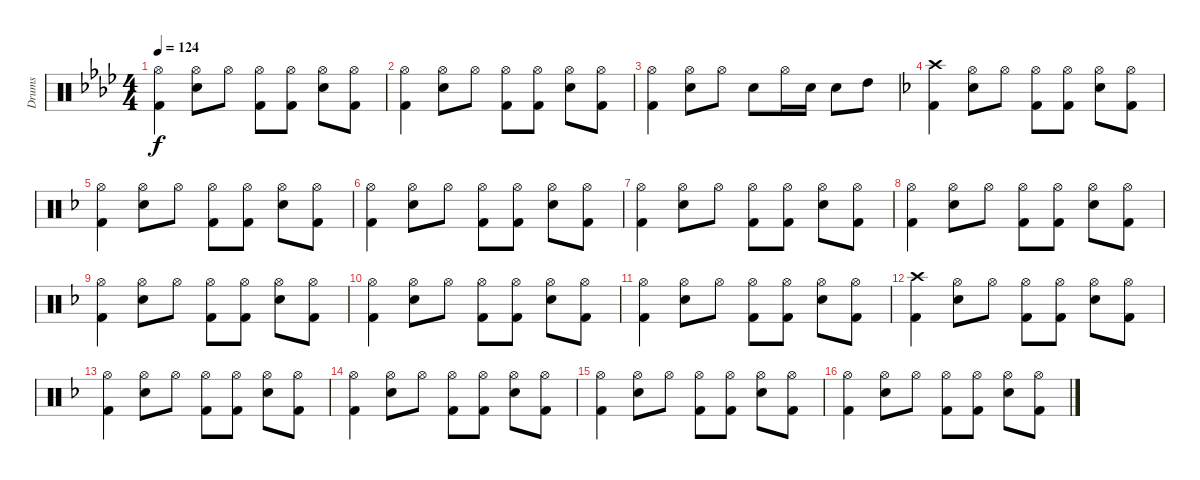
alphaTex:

\track ("Drums" "Drums") {instrument percussion}
\staff {score}
\articulation defaults
\ts (4 4)
\tempo 124
\clef neutral
\ks fminor
("Kick (hit) 2" "Hi-Hat (open)").4{dy f} ("Snare (hit) 2" "Hi-Hat (open)").8 "Hi-Hat (open)".8 ("Kick (hit) 2" "Hi-Hat (open)").8 ("Kick (hit) 2" "Hi-Hat (open)").8 ("Snare (hit) 2" "Hi-Hat (open)").8 ("Kick (hit) 2" "Hi-Hat (open)").8 |
("Kick (hit) 2" "Hi-Hat (open)").4 ("Snare (hit) 2" "Hi-Hat (open)").8 "Hi-Hat (open)".8 ("Kick (hit) 2" "Hi-Hat (open)").8 ("Kick (hit) 2" "Hi-Hat (open)").8 ("Snare (hit) 2" "Hi-Hat (open)").8 ("Kick (hit) 2" "Hi-Hat (open)").8 |
("Kick (hit) 2" "Hi-Hat (open)").4 ("Snare (hit) 2" "Hi-Hat (open)").8 "Hi-Hat (open)".8 "Snare (hit) 2".8 "Hi-Hat (open)".16 "Snare (hit) 2".16 "Snare (hit) 2".8 "High Tom (hit)".8 |
\ks dminor
("Kick (hit) 2" "Crash high (hit)").4 ("Snare (hit) 2" "Hi-Hat (open)").8 "Hi-Hat (open)".8 ("Kick (hit) 2" "Hi-Hat (open)").8 ("Kick (hit) 2" "Hi-Hat (open)").8 ("Snare (hit) 2" "Hi-Hat (open)").8 ("Kick (hit) 2" "Hi-Hat (open)").8 |
("Kick (hit) 2" "Hi-Hat (open)").4 ("Snare (hit) 2" "Hi-Hat (open)").8 "Hi-Hat (open)".8 ("Kick (hit) 2" "Hi-Hat (open)").8 ("Kick (hit) 2" "Hi-Hat (open)").8 ("Snare (hit) 2" "Hi-Hat (open)").8 ("Kick (hit) 2" "Hi-Hat (open)").8 |
("Kick (hit) 2" "Hi-Hat (open)").4 ("Snare (hit) 2" "Hi-Hat (open)").8 "Hi-Hat (open)".8 ("Kick (hit) 2" "Hi-Hat (open)").8 ("Kick (hit) 2" "Hi-Hat (open)").8 ("Snare (hit) 2" "Hi-Hat (open)").8 ("Kick (hit) 2" "Hi-Hat (open)").8 |
("Kick (hit) 2" "Hi-Hat (open)").4 ("Snare (hit) 2" "Hi-Hat (open)").8 "Hi-Hat (open)".8 ("Kick (hit) 2" "Hi-Hat (open)").8 ("Kick (hit) 2" "Hi-Hat (open)").8 ("Snare (hit) 2" "Hi-Hat (open)").8 ("Kick (hit) 2" "Hi-Hat (open)").8 |
("Kick (hit) 2" "Hi-Hat (open)").4 ("Snare (hit) 2" "Hi-Hat (open)").8 "Hi-Hat (open)".8 ("Kick (hit) 2" "Hi-Hat (open)").8 ("Kick (hit) 2" "Hi-Hat (open)").8 ("Snare (hit) 2" "Hi-Hat (open)").8 ("Kick (hit) 2" "Hi-Hat (open)").8 |
("Kick (hit) 2" "Hi-Hat (open)").4 ("Snare (hit) 2" "Hi-Hat (open)").8 "Hi-Hat (open)".8 ("Kick (hit) 2" "Hi-Hat (open)").8 ("Kick (hit) 2" "Hi-Hat (open)").8 ("Snare (hit) 2" "Hi-Hat (open)").8 ("Kick (hit) 2" "Hi-Hat (open)").8 |
("Kick (hit) 2" "Hi-Hat (open)").4 ("Snare (hit) 2" "Hi-Hat (open)").8 "Hi-Hat (open)".8 ("Kick (hit) 2" "Hi-Hat (open)").8 ("Kick (hit) 2" "Hi-Hat (open)").8 ("Snare (hit) 2" "Hi-Hat (open)").8 ("Kick (hit) 2" "Hi-Hat (open)").8 |
("Kick (hit) 2" "Hi-Hat (open)").4 ("Snare (hit) 2" "Hi-Hat (open)").8 "Hi-Hat (open)".8 ("Kick (hit) 2" "Hi-Hat (open)").8 ("Kick (hit) 2" "Hi-Hat (open)").8 ("Snare (hit) 2" "Hi-Hat (open)").8 ("Kick (hit) 2" "Hi-Hat (open)").8 |
("Kick (hit) 2" "Crash high (hit)").4 ("Snare (hit) 2" "Hi-Hat (open)").8 "Hi-Hat (open)".8 ("Kick (hit) 2" "Hi-Hat (open)").8 ("Kick (hit) 2" "Hi-Hat (open)").8 ("Snare (hit) 2" "Hi-Hat (open)").8 ("Kick (hit) 2" "Hi-Hat (open)").8 |
("Kick (hit) 2" "Hi-Hat (open)").4 ("Snare (hit) 2" "Hi-Hat (open)").8 "Hi-Hat (open)".8 ("Kick (hit) 2" "Hi-Hat (open)").8 ("Kick (hit) 2" "Hi-Hat (open)").8 ("Snare (hit) 2" "Hi-Hat (open)").8 ("Kick (hit) 2" "Hi-Hat (open)").8 |
("Kick (hit) 2" "Hi-Hat (open)").4 ("Snare (hit) 2" "Hi-Hat (open)").8 "Hi-Hat (open)".8 ("Kick (hit) 2" "Hi-Hat (open)").8 ("Kick (hit) 2" "Hi-Hat (open)").8 ("Snare (hit) 2" "Hi-Hat (open)").8 ("Kick (hit) 2" "Hi-Hat (open)").8 |
("Kick (hit) 2" "Hi-Hat (open)").4 ("Snare (hit) 2" "Hi-Hat (open)").8 "Hi-Hat (open)".8 ("Kick (hit) 2" "Hi-Hat (open)").8 ("Kick (hit) 2" "Hi-Hat (open)").8 ("Snare (hit) 2" "Hi-Hat (open)").8 ("Kick (hit) 2" "Hi-Hat (open)").8 |
("Kick (hit) 2" "Hi-Hat (open)").4 ("Snare (hit) 2" "Hi-Hat (open)").8 "Hi-Hat (open)".8 ("Kick (hit) 2" "Hi-Hat (open)").8 ("Kick (hit) 2" "Hi-Hat (open)").8 ("Snare (hit) 2" "Hi-Hat (open)").8 ("Kick (hit) 2" "Hi-Hat (open)").8
